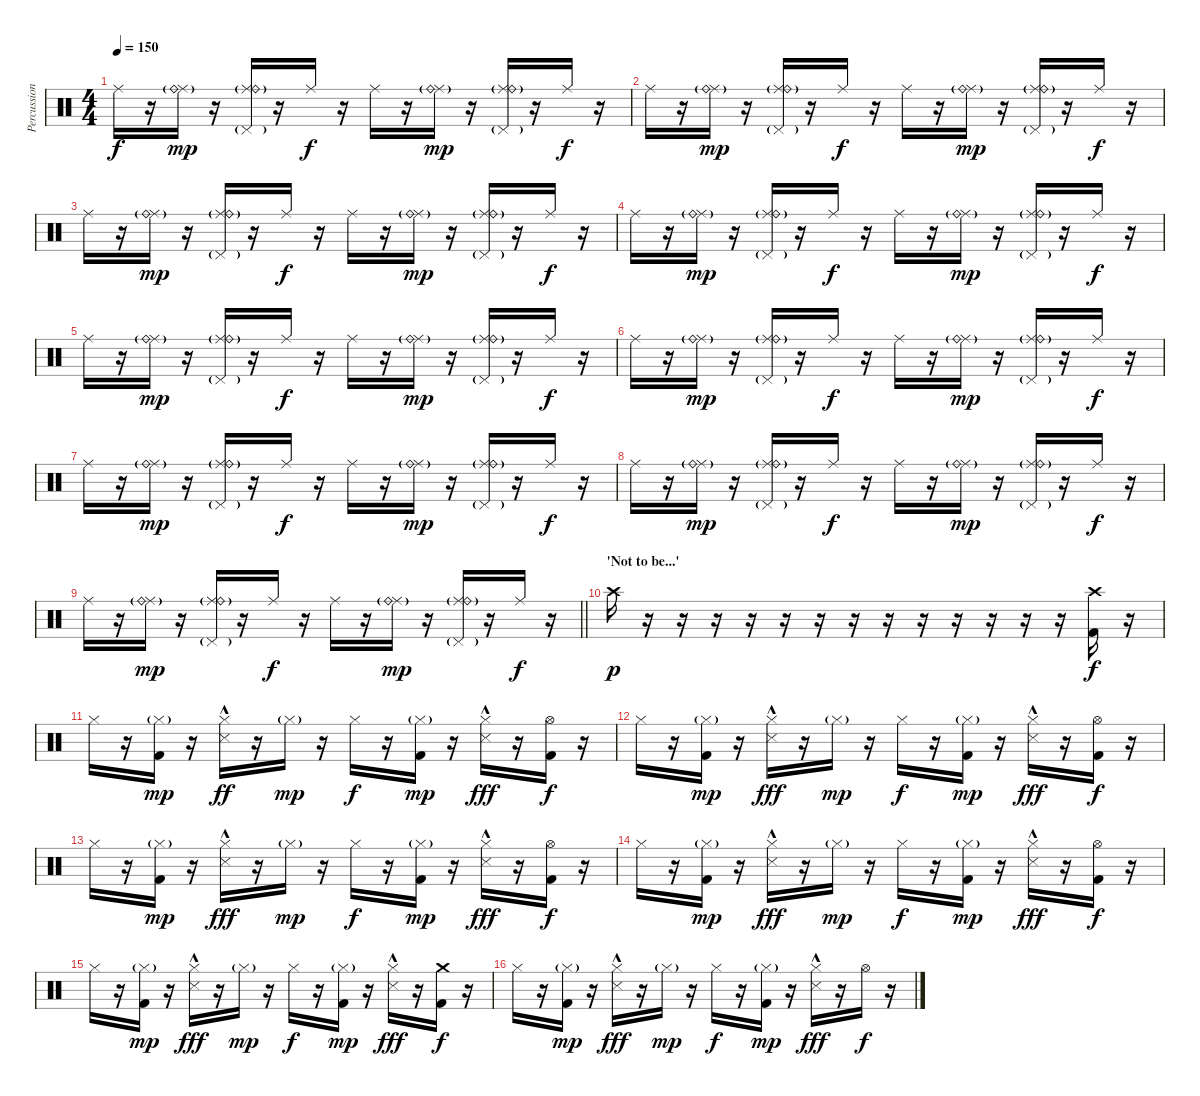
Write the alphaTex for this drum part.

\track ("Percussion" "Percussion") {instrument percussion}
\staff {score}
\articulation defaults
\ts (4 4)
\tempo 150
\clef neutral
\ks c "Ride (middle)".16{dy f}
r.16 ("Ride (middle)"{g} "Ride (bell)").16{dy mp} r.16 ("Ride (middle)"{g} "Ride (bell)" "Pedal Hi-Hat (hit)"{g}).16 r.16 "Ride (middle)".16{dy f} r.16 "Ride (middle)".16 r.16 ("Ride (middle)"{g} "Ride (bell)").16{dy mp} r.16 ("Ride (middle)"{g} "Ride (bell)" "Pedal Hi-Hat (hit)"{g}).16 r.16 "Ride (middle)".16{dy f} r.16 |
"Ride (middle)".16 r.16 ("Ride (middle)"{g} "Ride (bell)").16{dy mp} r.16 ("Ride (middle)"{g} "Ride (bell)" "Pedal Hi-Hat (hit)"{g}).16 r.16 "Ride (middle)".16{dy f} r.16 "Ride (middle)".16 r.16 ("Ride (middle)"{g} "Ride (bell)").16{dy mp} r.16 ("Ride (middle)"{g} "Ride (bell)" "Pedal Hi-Hat (hit)"{g}).16 r.16 "Ride (middle)".16{dy f} r.16 |
"Ride (middle)".16 r.16 ("Ride (middle)"{g} "Ride (bell)").16{dy mp} r.16 ("Ride (middle)"{g} "Ride (bell)" "Pedal Hi-Hat (hit)"{g}).16 r.16 "Ride (middle)".16{dy f} r.16 "Ride (middle)".16 r.16 ("Ride (middle)"{g} "Ride (bell)").16{dy mp} r.16 ("Ride (middle)"{g} "Ride (bell)" "Pedal Hi-Hat (hit)"{g}).16 r.16 "Ride (middle)".16{dy f} r.16 |
"Ride (middle)".16 r.16 ("Ride (middle)"{g} "Ride (bell)").16{dy mp} r.16 ("Ride (middle)"{g} "Ride (bell)" "Pedal Hi-Hat (hit)"{g}).16 r.16 "Ride (middle)".16{dy f} r.16 "Ride (middle)".16 r.16 ("Ride (middle)"{g} "Ride (bell)").16{dy mp} r.16 ("Ride (middle)"{g} "Ride (bell)" "Pedal Hi-Hat (hit)"{g}).16 r.16 "Ride (middle)".16{dy f} r.16 |
"Ride (middle)".16 r.16 ("Ride (middle)"{g} "Ride (bell)").16{dy mp} r.16 ("Ride (middle)"{g} "Ride (bell)" "Pedal Hi-Hat (hit)"{g}).16 r.16 "Ride (middle)".16{dy f} r.16 "Ride (middle)".16 r.16 ("Ride (middle)"{g} "Ride (bell)").16{dy mp} r.16 ("Ride (middle)"{g} "Ride (bell)" "Pedal Hi-Hat (hit)"{g}).16 r.16 "Ride (middle)".16{dy f} r.16 |
"Ride (middle)".16 r.16 ("Ride (middle)"{g} "Ride (bell)").16{dy mp} r.16 ("Ride (middle)"{g} "Ride (bell)" "Pedal Hi-Hat (hit)"{g}).16 r.16 "Ride (middle)".16{dy f} r.16 "Ride (middle)".16 r.16 ("Ride (middle)"{g} "Ride (bell)").16{dy mp} r.16 ("Ride (middle)"{g} "Ride (bell)" "Pedal Hi-Hat (hit)"{g}).16 r.16 "Ride (middle)".16{dy f} r.16 |
"Ride (middle)".16 r.16 ("Ride (middle)"{g} "Ride (bell)").16{dy mp} r.16 ("Ride (middle)"{g} "Ride (bell)" "Pedal Hi-Hat (hit)"{g}).16 r.16 "Ride (middle)".16{dy f} r.16 "Ride (middle)".16 r.16 ("Ride (middle)"{g} "Ride (bell)").16{dy mp} r.16 ("Ride (middle)"{g} "Ride (bell)" "Pedal Hi-Hat (hit)"{g}).16 r.16 "Ride (middle)".16{dy f} r.16 |
"Ride (middle)".16 r.16 ("Ride (middle)"{g} "Ride (bell)").16{dy mp} r.16 ("Ride (middle)"{g} "Ride (bell)" "Pedal Hi-Hat (hit)"{g}).16 r.16 "Ride (middle)".16{dy f} r.16 "Ride (middle)".16 r.16 ("Ride (middle)"{g} "Ride (bell)").16{dy mp} r.16 ("Ride (middle)"{g} "Ride (bell)" "Pedal Hi-Hat (hit)"{g}).16 r.16 "Ride (middle)".16{dy f} r.16 |
\barLineRight lightlight "Ride (middle)".16
r.16 ("Ride (middle)"{g} "Ride (bell)").16{dy mp} r.16 ("Ride (middle)"{g} "Ride (bell)" "Pedal Hi-Hat (hit)"{g}).16 r.16 "Ride (middle)".16{dy f} r.16 "Ride (middle)".16 r.16 ("Ride (middle)"{g} "Ride (bell)").16{dy mp} r.16 ("Ride (middle)"{g} "Ride (bell)" "Pedal Hi-Hat (hit)"{g}).16 r.16 "Ride (middle)".16{dy f} r.16 |
\section ("" "'Not to be...'")
"Crash high (hit)".16{dy p} r.16 r.16 r.16 r.16 r.16 r.16 r.16 r.16 r.16 r.16 r.16 r.16 r.16 ("Crash high (hit)" "Kick (hit) 2").16{dy f} r.16 |
"Hi-Hat (closed)".16 r.16 ("Hi-Hat (closed)"{g} "Kick (hit) 2").16{dy mp} r.16 ("Hi-Hat (closed)" "Snare (side stick) 3"{hac}).16{dy ff} r.16 "Hi-Hat (closed)"{g}.16{dy mp} r.16 "Hi-Hat (closed)".16{dy f} r.16 ("Hi-Hat (closed)"{g} "Kick (hit) 2").16{dy mp} r.16 ("Hi-Hat (closed)" "Snare (side stick) 3"{hac}).16{dy fff} r.16 ("Hi-Hat (open)" "Kick (hit) 2").16{dy f} r.16 |
"Hi-Hat (closed)".16 r.16 ("Hi-Hat (closed)"{g} "Kick (hit) 2").16{dy mp} r.16 ("Hi-Hat (closed)" "Snare (side stick) 3"{hac}).16{dy fff} r.16 "Hi-Hat (closed)"{g}.16{dy mp} r.16 "Hi-Hat (closed)".16{dy f} r.16 ("Hi-Hat (closed)"{g} "Kick (hit) 2").16{dy mp} r.16 ("Hi-Hat (closed)" "Snare (side stick) 3"{hac}).16{dy fff} r.16 ("Hi-Hat (open)" "Kick (hit) 2").16{dy f} r.16 |
"Hi-Hat (closed)".16 r.16 ("Hi-Hat (closed)"{g} "Kick (hit) 2").16{dy mp} r.16 ("Hi-Hat (closed)" "Snare (side stick) 3"{hac}).16{dy fff} r.16 "Hi-Hat (closed)"{g}.16{dy mp} r.16 "Hi-Hat (closed)".16{dy f} r.16 ("Hi-Hat (closed)"{g} "Kick (hit) 2").16{dy mp} r.16 ("Hi-Hat (closed)" "Snare (side stick) 3"{hac}).16{dy fff} r.16 ("Hi-Hat (open)" "Kick (hit) 2").16{dy f} r.16 |
"Hi-Hat (closed)".16 r.16 ("Hi-Hat (closed)"{g} "Kick (hit) 2").16{dy mp} r.16 ("Hi-Hat (closed)" "Snare (side stick) 3"{hac}).16{dy fff} r.16 "Hi-Hat (closed)"{g}.16{dy mp} r.16 "Hi-Hat (closed)".16{dy f} r.16 ("Hi-Hat (closed)"{g} "Kick (hit) 2").16{dy mp} r.16 ("Hi-Hat (closed)" "Snare (side stick) 3"{hac}).16{dy fff} r.16 ("Hi-Hat (open)" "Kick (hit) 2").16{dy f} r.16 |
"Hi-Hat (closed)".16 r.16 ("Hi-Hat (closed)"{g} "Kick (hit) 2").16{dy mp} r.16 ("Hi-Hat (closed)" "Snare (side stick) 3"{hac}).16{dy fff} r.16 "Hi-Hat (closed)"{g}.16{dy mp} r.16 "Hi-Hat (closed)".16{dy f} r.16 ("Hi-Hat (closed)"{g} "Kick (hit) 2").16{dy mp} r.16 ("Hi-Hat (closed)" "Snare (side stick) 3"{hac}).16{dy fff} r.16 ("Crash medium (hit)" "Kick (hit) 2").16{dy f} r.16 |
"Hi-Hat (closed)".16 r.16 ("Hi-Hat (closed)"{g} "Kick (hit) 2").16{dy mp} r.16 ("Hi-Hat (closed)" "Snare (side stick) 3"{hac}).16{dy fff} r.16 "Hi-Hat (closed)"{g}.16{dy mp} r.16 "Hi-Hat (closed)".16{dy f} r.16 ("Hi-Hat (closed)"{g} "Kick (hit) 2").16{dy mp} r.16 ("Hi-Hat (closed)" "Snare (side stick) 3"{hac}).16{dy fff} r.16 "Hi-Hat (open)".16{dy f} r.16
